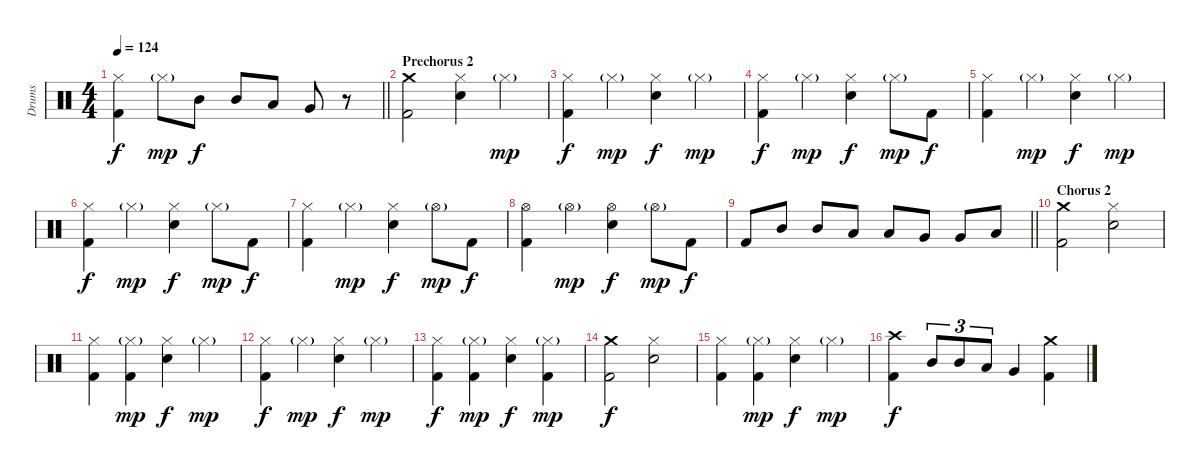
\track ("Drums" "Drums") {instrument percussion}
\staff {score}
\articulation defaults
\ts (4 4)
\tempo 124
\clef neutral
\barLineRight lightlight
\ks c
("Hi-Hat (closed)" "Kick (hit) 2").4{dy f} "Hi-Hat (closed)"{g}.8{dy mp} "Mid Tom (hit)".8{dy f} "Mid Tom (hit)".8 "Low Tom (hit)".8 "Very Low Tom (hit)".8 r.8 |
\section ("" "Prechorus 2")
("Crash medium (hit)" "Kick (hit) 2").2 ("Hi-Hat (closed)" "Snare (hit) 2").4 "Hi-Hat (closed)"{g}.4{dy mp} |
("Hi-Hat (closed)" "Kick (hit) 2").4{dy f} "Hi-Hat (closed)"{g}.4{dy mp} ("Hi-Hat (closed)" "Snare (hit) 2").4{dy f} "Hi-Hat (closed)"{g}.4{dy mp} |
("Hi-Hat (closed)" "Kick (hit) 2").4{dy f} "Hi-Hat (closed)"{g}.4{dy mp} ("Hi-Hat (closed)" "Snare (hit) 2").4{dy f} "Hi-Hat (closed)"{g}.8{dy mp} "Kick (hit) 2".8{dy f} |
("Hi-Hat (closed)" "Kick (hit) 2").4 "Hi-Hat (closed)"{g}.4{dy mp} ("Hi-Hat (closed)" "Snare (hit) 2").4{dy f} "Hi-Hat (closed)"{g}.4{dy mp} |
("Hi-Hat (closed)" "Kick (hit) 2").4{dy f} "Hi-Hat (closed)"{g}.4{dy mp} ("Hi-Hat (closed)" "Snare (hit) 2").4{dy f} "Hi-Hat (closed)"{g}.8{dy mp} "Kick (hit) 2".8{dy f} |
("Hi-Hat (closed)" "Kick (hit) 2").4 "Hi-Hat (closed)"{g}.4{dy mp} ("Hi-Hat (closed)" "Snare (hit) 2").4{dy f} "Hi-Hat (open)"{g}.8{dy mp} "Kick (hit) 2".8{dy f} |
("Hi-Hat (open)" "Kick (hit) 2").4 "Hi-Hat (open)"{g}.4{dy mp} ("Hi-Hat (open)" "Snare (hit) 2").4{dy f} "Hi-Hat (open)"{g}.8{dy mp} "Kick (hit) 2".8{dy f} |
\barLineRight lightlight "Kick (hit) 2".8 "Mid Tom (hit)".8 "Mid Tom (hit)".8 "Low Tom (hit)".8 "Low Tom (hit)".8 "Very Low Tom (hit)".8 "Very Low Tom (hit)".8 "Low Floor Tom (hit)".8
|
\section ("" "Chorus 2")
("Crash medium (hit)" "Kick (hit) 2").2 ("Hi-Hat (closed)" "Snare (hit) 2").2 |
("Hi-Hat (closed)" "Kick (hit) 2").4 ("Hi-Hat (closed)"{g} "Kick (hit) 2").4{dy mp} ("Hi-Hat (closed)" "Snare (hit) 2").4{dy f} "Hi-Hat (closed)"{g}.4{dy mp} |
("Hi-Hat (closed)" "Kick (hit) 2").4{dy f} "Hi-Hat (closed)"{g}.4{dy mp} ("Hi-Hat (closed)" "Snare (hit) 2").4{dy f} "Hi-Hat (closed)"{g}.4{dy mp} |
("Hi-Hat (closed)" "Kick (hit) 2").4{dy f} ("Hi-Hat (closed)"{g} "Kick (hit) 2").4{dy mp} ("Hi-Hat (closed)" "Snare (hit) 2").4{dy f} ("Hi-Hat (closed)"{g} "Kick (hit) 2").4{dy mp} |
("Crash medium (hit)" "Kick (hit) 2").2{dy f} ("Hi-Hat (closed)" "Snare (hit) 2").2 |
("Hi-Hat (closed)" "Kick (hit) 2").4 ("Hi-Hat (closed)"{g} "Kick (hit) 2").4{dy mp} ("Hi-Hat (closed)" "Snare (hit) 2").4{dy f} "Hi-Hat (closed)"{g}.4{dy mp} |
("Crash high (hit)" "Kick (hit) 2").4{dy f} "Mid Tom (hit)".8{tu (3 2)} "Mid Tom (hit)".8{tu (3 2)} "Low Tom (hit)".8{tu (3 2)} "Very Low Tom (hit)".4 ("Crash medium (hit)" "Kick (hit) 2").4
